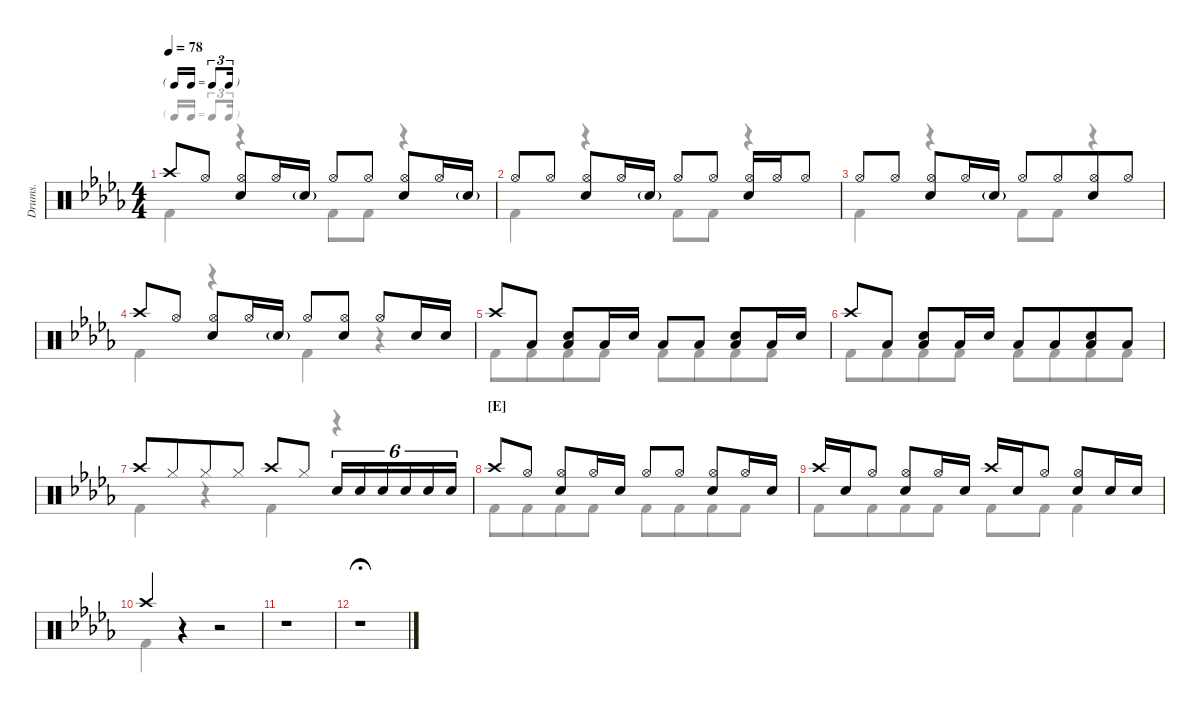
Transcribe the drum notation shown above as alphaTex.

\defaultSystemsLayout 4
\hideDynamics
\otherSystemsTrackNameOrientation horizontal
\track ("Drumkit" "Drums.") {defaultSystemsLayout 4 instrument percussion}
\staff {score}
\articulation defaults
\voice
\ts (4 4)
\tf triplet16th
\tempo 78
\clef neutral
\ks db "Crash high (hit)"{acc forcenatural}.8{dy mf beam Up} "Hi-Hat (open)"{acc forcenatural}.8{beam Up}
("Hi-Hat (open)"{acc forcenatural} "Snare (hit) 2"{acc forcenatural}).8{beam Up} "Hi-Hat (open)"{acc forcenatural}.16{beam Up} "Snare (hit) 2"{g acc forcenatural}.16{beam Up} "Hi-Hat (open)"{acc forcenatural}.8{beam Up} "Hi-Hat (open)"{acc forcenatural}.8{beam Up} ("Hi-Hat (open)"{acc forcenatural} "Snare (hit) 2"{acc forcenatural}).8{beam Up} "Hi-Hat (open)"{acc forcenatural}.16{beam Up} "Snare (hit) 2"{g acc forcenatural}.16{beam Up} |
"Hi-Hat (open)"{acc forcenatural}.8{beam Up} "Hi-Hat (open)"{acc forcenatural}.8{beam Up} ("Hi-Hat (open)"{acc forcenatural} "Snare (hit) 2"{acc forcenatural}).8{beam Up} "Hi-Hat (open)"{acc forcenatural}.16{beam Up} "Snare (hit) 2"{g acc forcenatural}.16{beam Up} "Hi-Hat (open)"{acc forcenatural}.8{beam Up beam merge} "Hi-Hat (open)"{acc forcenatural}.8{beam Up beam split} ("Hi-Hat (open)"{acc forcenatural} "Snare (hit) 2"{acc forcenatural}).16{beam Up} "Hi-Hat (open)"{acc forcenatural}.16{beam Up} "Hi-Hat (open)"{acc forcenatural}.8{beam Up} |
"Hi-Hat (open)"{acc forcenatural}.8{beam Up} "Hi-Hat (open)"{acc forcenatural}.8{beam Up} ("Hi-Hat (open)"{acc forcenatural} "Snare (hit) 2"{acc forcenatural}).8{beam Up} "Hi-Hat (open)"{acc forcenatural}.16{beam Up} "Snare (hit) 2"{g acc forcenatural}.16{beam Up} "Hi-Hat (open)"{acc forcenatural}.8{beam Up beam merge} "Hi-Hat (open)"{acc forcenatural}.8{beam Up beam merge} ("Hi-Hat (open)"{acc forcenatural} "Snare (hit) 2"{acc forcenatural}).8{beam Up beam merge} "Hi-Hat (open)"{acc forcenatural}.8{beam Up} |
"Crash high (hit)"{acc forcenatural}.8{beam Up} "Hi-Hat (open)"{acc forcenatural}.8{beam Up} ("Hi-Hat (open)"{acc forcenatural} "Snare (hit) 2"{acc forcenatural}).8{beam Up} "Hi-Hat (open)"{acc forcenatural}.16{beam Up} "Snare (hit) 2"{g acc forcenatural}.16{beam Up} "Hi-Hat (open)"{acc forcenatural}.8{beam Up} ("Hi-Hat (open)"{acc forcenatural} "Snare (hit) 2"{acc forcenatural}).8{beam Up} "Hi-Hat (open)"{acc forcenatural}.8{beam Up} "Snare (hit) 2"{acc forcenatural}.16{beam Up} "Snare (hit) 2"{acc forcenatural}.16{beam Up} |
"Crash high (hit)"{acc forcenatural}.8{beam Up} "Low Tom (hit)"{acc forcenatural}.8{beam Up} ("Low Tom (hit)"{acc forcenatural} "Snare (hit) 2"{acc forcenatural}).8{beam Up} "Low Tom (hit)"{acc forcenatural}.16{beam Up} "Snare (hit) 2"{acc forcenatural}.16{beam Up} "Low Tom (hit)"{acc forcenatural}.8{beam Up} "Low Tom (hit)"{acc forcenatural}.8{beam Up} ("Low Tom (hit)"{acc forcenatural} "Snare (hit) 2"{acc forcenatural}).8{beam Up} "Low Tom (hit)"{acc forcenatural}.16{beam Up} "Snare (hit) 2"{acc forcenatural}.16{beam Up} |
"Crash high (hit)"{acc forcenatural}.8{beam Up} "Low Tom (hit)"{acc forcenatural}.8{beam Up} ("Low Tom (hit)"{acc forcenatural} "Snare (hit) 2"{acc forcenatural}).8{beam Up} "Low Tom (hit)"{acc forcenatural}.16{beam Up} "Snare (hit) 2"{acc forcenatural}.16{beam Up} "Low Tom (hit)"{acc forcenatural}.8{beam Up} "Low Tom (hit)"{acc forcenatural}.8{beam Up beam merge} ("Low Tom (hit)"{acc forcenatural} "Snare (hit) 2"{acc forcenatural}).8{beam Up} "Low Tom (hit)"{acc forcenatural}.8{beam Up} |
"Crash high (hit)"{acc forcenatural}.8{beam Up beam merge} "Hi-Hat (closed)"{acc forcenatural}.8{beam Up beam merge} "Hi-Hat (closed)"{acc forcenatural}.8{beam Up beam merge} "Hi-Hat (closed)"{acc forcenatural}.8{beam Up} "Crash high (hit)"{acc forcenatural}.8{beam Up beam merge} "Hi-Hat (closed)"{acc forcenatural}.8{beam Up beam split} "Snare (hit) 2"{acc forcenatural}.16{tu (6 4) beam Up} "Snare (hit) 2"{acc forcenatural}.16{tu (6 4) beam Up} "Snare (hit) 2"{acc forcenatural}.16{tu (6 4) beam Up} "Snare (hit) 2"{acc forcenatural}.16{tu (6 4) beam Up} "Snare (hit) 2"{acc forcenatural}.16{tu (6 4) beam Up} "Snare (hit) 2"{acc forcenatural}.16{tu (6 4) beam Up} |
\section ("E" "")
"Crash high (hit)"{acc forcenatural}.8{beam Up} "Hi-Hat (open)"{acc forcenatural}.8{beam Up} ("Hi-Hat (open)"{acc forcenatural} "Snare (hit) 2"{acc forcenatural}).8{beam Up} "Hi-Hat (open)"{acc forcenatural}.16{beam Up} "Snare (hit) 2"{acc forcenatural}.16{beam Up} "Hi-Hat (open)"{acc forcenatural}.8{beam Up} "Hi-Hat (open)"{acc forcenatural}.8{beam Up} ("Hi-Hat (open)"{acc forcenatural} "Snare (hit) 2"{acc forcenatural}).8{beam Up} "Hi-Hat (open)"{acc forcenatural}.16{beam Up} "Snare (hit) 2"{acc forcenatural}.16{beam Up} |
"Crash high (hit)"{acc forcenatural}.16{beam Up} "Snare (hit) 2"{acc forcenatural}.16{beam Up} "Hi-Hat (open)"{acc forcenatural}.8{beam Up} ("Hi-Hat (open)"{acc forcenatural} "Snare (hit) 2"{acc forcenatural}).8{beam Up} "Hi-Hat (open)"{acc forcenatural}.16{beam Up} "Snare (hit) 2"{acc forcenatural}.16{beam Up} "Crash high (hit)"{acc forcenatural}.16{beam Up} "Snare (hit) 2"{acc forcenatural}.16{beam Up} "Hi-Hat (open)"{acc forcenatural}.8{beam Up} ("Hi-Hat (open)"{acc forcenatural} "Snare (hit) 2"{acc forcenatural}).8{beam Up} "Snare (hit) 2"{acc forcenatural}.16{beam Up} "Snare (hit) 2"{acc forcenatural}.16{beam Up} |
"Crash high (hit)"{acc forcenatural}.4{beam Up} r.4{beam Up} r.2{beam Up} |
r.1{beam Down} |
r.1{fermata (medium 1) beam Down}
\voice
\clef neutral
\ottava regular
\simile none
\ks db "Kick (hit) 2"{acc forcenatural}.4{dy mf beam Down}
r.4{beam Down} "Kick (hit) 2"{acc forcenatural}.8{beam Down} "Kick (hit) 2"{acc forcenatural}.8{beam Down} r.4{beam Down} |
"Kick (hit) 2"{acc forcenatural}.4{beam Down} r.4{beam Down} "Kick (hit) 2"{acc forcenatural}.8{beam Down} "Kick (hit) 2"{acc forcenatural}.8{beam Down} r.4{beam Down} |
"Kick (hit) 2"{acc forcenatural}.4{beam Down} r.4{beam Down} "Kick (hit) 2"{acc forcenatural}.8{beam Down} "Kick (hit) 2"{acc forcenatural}.8{beam Down} r.4{beam Down} |
"Kick (hit) 2"{acc forcenatural}.4{beam Down} r.4{beam Down} "Kick (hit) 2"{acc forcenatural}.4{beam Down} r.4{beam Down} |
"Kick (hit) 2"{acc forcenatural}.8{beam Down beam merge} "Kick (hit) 2"{acc forcenatural}.8{beam Down beam merge} "Kick (hit) 2"{acc forcenatural}.8{beam Down beam merge} "Kick (hit) 2"{acc forcenatural}.8{beam Down} "Kick (hit) 2"{acc forcenatural}.8{beam Down beam merge} "Kick (hit) 2"{acc forcenatural}.8{beam Down beam merge} "Kick (hit) 2"{acc forcenatural}.8{beam Down beam merge} "Kick (hit) 2"{acc forcenatural}.8{beam Down} |
"Kick (hit) 2"{acc forcenatural}.8{beam Down beam merge} "Kick (hit) 2"{acc forcenatural}.8{beam Down beam merge} "Kick (hit) 2"{acc forcenatural}.8{beam Down beam merge} "Kick (hit) 2"{acc forcenatural}.8{beam Down} "Kick (hit) 2"{acc forcenatural}.8{beam Down beam merge} "Kick (hit) 2"{acc forcenatural}.8{beam Down beam merge} "Kick (hit) 2"{acc forcenatural}.8{beam Down beam merge} "Kick (hit) 2"{acc forcenatural}.8{beam Down} |
"Kick (hit) 2"{acc forcenatural}.4{beam Down} r.4{beam Down} "Kick (hit) 2"{acc forcenatural}.4{beam Down} r.4{beam Down} |
"Kick (hit) 2"{acc forcenatural}.8{beam Down beam merge} "Kick (hit) 2"{acc forcenatural}.8{beam Down beam merge} "Kick (hit) 2"{acc forcenatural}.8{beam Down beam merge} "Kick (hit) 2"{acc forcenatural}.8{beam Down} "Kick (hit) 2"{acc forcenatural}.8{beam Down beam merge} "Kick (hit) 2"{acc forcenatural}.8{beam Down beam merge} "Kick (hit) 2"{acc forcenatural}.8{beam Down beam merge} "Kick (hit) 2"{acc forcenatural}.8{beam Down} |
"Kick (hit) 2"{acc forcenatural}.8{beam Down beam merge} "Kick (hit) 2"{acc forcenatural}.8{beam Down beam merge} "Kick (hit) 2"{acc forcenatural}.8{beam Down beam merge} "Kick (hit) 2"{acc forcenatural}.8{beam Down} "Kick (hit) 2"{acc forcenatural}.8{beam Down beam merge} "Kick (hit) 2"{acc forcenatural}.8{beam Down beam merge} "Kick (hit) 2"{acc forcenatural}.4{beam Down beam merge} |
"Kick (hit) 2"{acc forcenatural}.4{beam Down} r.4{beam Down} r.2{beam Down} |
|
